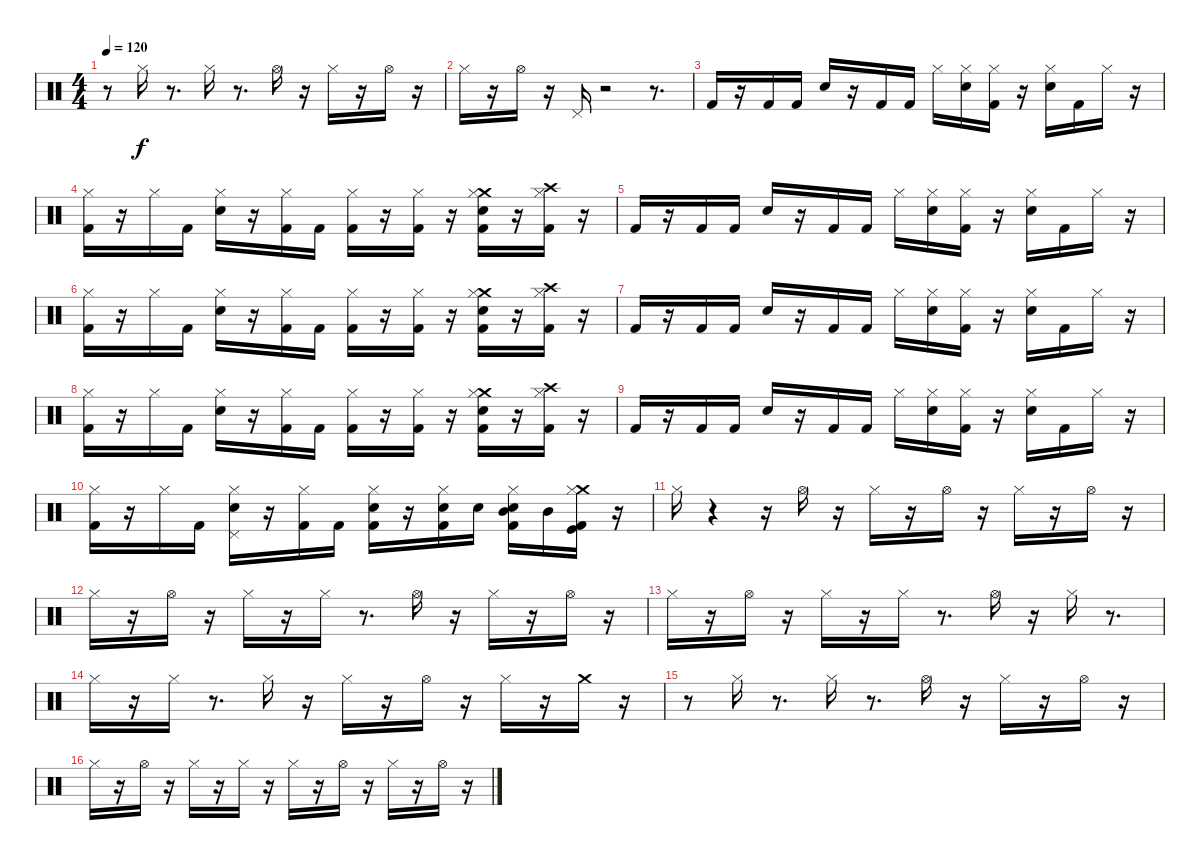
\track "" {instrument percussion}
\staff {score}
\articulation defaults
\ts (4 4)
\tempo 120
\clef neutral
\ks c
r.8{dy f} "Hi-Hat (closed)".16 r.8{d} "Hi-Hat (closed)".16 r.8{d} "Hi-Hat (open)".16 r.16 "Hi-Hat (closed)".16 r.16 "Hi-Hat (open)".16 r.16 |
"Hi-Hat (closed)".16 r.16 "Hi-Hat (open)".16 r.16 "Pedal Hi-Hat (hit)".16 r.2 r.8{d} |
"Kick (hit) 2".16 r.16 "Kick (hit) 2".16 "Kick (hit) 2".16 "Electric Snare (hit)".16 r.16 "Kick (hit) 2".16 "Kick (hit) 2".16 "Hi-Hat (closed)".16 ("Hi-Hat (closed)" "Electric Snare (hit)").16 ("Hi-Hat (closed)" "Kick (hit) 2").16 r.16 ("Hi-Hat (closed)" "Electric Snare (hit)").16 "Kick (hit) 2".16 "Hi-Hat (closed)".16 r.16 |
("Kick (hit) 2" "Hi-Hat (closed)").16 r.16 "Hi-Hat (closed)".16 "Kick (hit) 2".16 ("Electric Snare (hit)" "Hi-Hat (closed)").16 r.16 ("Kick (hit) 2" "Hi-Hat (closed)").16 "Kick (hit) 2".16 ("Kick (hit) 2" "Hi-Hat (closed)").16 r.16 ("Kick (hit) 2" "Hi-Hat (closed)").16 r.16 ("Crash medium (hit)" "Electric Snare (hit)" "Kick (hit) 2" "Hi-Hat (closed)").16 r.16 ("Crash high (hit)" "Kick (hit) 2" "Hi-Hat (closed)").16 r.16 |
"Kick (hit) 2".16 r.16 "Kick (hit) 2".16 "Kick (hit) 2".16 "Electric Snare (hit)".16 r.16 "Kick (hit) 2".16 "Kick (hit) 2".16 "Hi-Hat (closed)".16 ("Hi-Hat (closed)" "Electric Snare (hit)").16 ("Hi-Hat (closed)" "Kick (hit) 2").16 r.16 ("Hi-Hat (closed)" "Electric Snare (hit)").16 "Kick (hit) 2".16 "Hi-Hat (closed)".16 r.16 |
("Kick (hit) 2" "Hi-Hat (closed)").16 r.16 "Hi-Hat (closed)".16 "Kick (hit) 2".16 ("Electric Snare (hit)" "Hi-Hat (closed)").16 r.16 ("Kick (hit) 2" "Hi-Hat (closed)").16 "Kick (hit) 2".16 ("Kick (hit) 2" "Hi-Hat (closed)").16 r.16 ("Kick (hit) 2" "Hi-Hat (closed)").16 r.16 ("Crash medium (hit)" "Electric Snare (hit)" "Kick (hit) 2" "Hi-Hat (closed)").16 r.16 ("Crash high (hit)" "Kick (hit) 2" "Hi-Hat (closed)").16 r.16 |
"Kick (hit) 2".16 r.16 "Kick (hit) 2".16 "Kick (hit) 2".16 "Electric Snare (hit)".16 r.16 "Kick (hit) 2".16 "Kick (hit) 2".16 "Hi-Hat (closed)".16 ("Hi-Hat (closed)" "Electric Snare (hit)").16 ("Hi-Hat (closed)" "Kick (hit) 2").16 r.16 ("Hi-Hat (closed)" "Electric Snare (hit)").16 "Kick (hit) 2".16 "Hi-Hat (closed)".16 r.16 |
("Kick (hit) 2" "Hi-Hat (closed)").16 r.16 "Hi-Hat (closed)".16 "Kick (hit) 2".16 ("Electric Snare (hit)" "Hi-Hat (closed)").16 r.16 ("Kick (hit) 2" "Hi-Hat (closed)").16 "Kick (hit) 2".16 ("Kick (hit) 2" "Hi-Hat (closed)").16 r.16 ("Kick (hit) 2" "Hi-Hat (closed)").16 r.16 ("Crash medium (hit)" "Electric Snare (hit)" "Kick (hit) 2" "Hi-Hat (closed)").16 r.16 ("Crash high (hit)" "Kick (hit) 2" "Hi-Hat (closed)").16 r.16 |
"Kick (hit) 2".16 r.16 "Kick (hit) 2".16 "Kick (hit) 2".16 "Electric Snare (hit)".16 r.16 "Kick (hit) 2".16 "Kick (hit) 2".16 "Hi-Hat (closed)".16 ("Hi-Hat (closed)" "Electric Snare (hit)").16 ("Hi-Hat (closed)" "Kick (hit) 2").16 r.16 ("Hi-Hat (closed)" "Electric Snare (hit)").16 "Kick (hit) 2".16 "Hi-Hat (closed)".16 r.16 |
("Kick (hit) 2" "Hi-Hat (closed)").16 r.16 "Hi-Hat (closed)".16 "Kick (hit) 2".16 ("Pedal Hi-Hat (hit)" "Electric Snare (hit)" "Hi-Hat (closed)").16 r.16 ("Kick (hit) 2" "Hi-Hat (closed)").16 "Kick (hit) 2".16 ("Snare (hit) 2" "Kick (hit) 2" "Hi-Hat (closed)").16 r.16 ("Snare (hit) 2" "Kick (hit) 2" "Hi-Hat (closed)").16 "Snare (hit) 2".16 ("Mid Tom (hit)" "Electric Snare (hit)" "Kick (hit) 2" "Hi-Hat (closed)").16 "Mid Tom (hit)".16 ("Crash medium (hit)" "Kick (hit)" "Kick (hit) 2" "Hi-Hat (closed)").16 r.16 |
"Hi-Hat (closed)".16 r.4 r.16 "Hi-Hat (open)".16 r.16 "Hi-Hat (closed)".16 r.16 "Hi-Hat (open)".16 r.16 "Hi-Hat (closed)".16 r.16 "Hi-Hat (open)".16 r.16 |
"Hi-Hat (closed)".16 r.16 "Hi-Hat (open)".16 r.16 "Hi-Hat (closed)".16 r.16 "Hi-Hat (closed)".16 r.8{d} "Hi-Hat (open)".16 r.16 "Hi-Hat (closed)".16 r.16 "Hi-Hat (open)".16 r.16 |
"Hi-Hat (closed)".16 r.16 "Hi-Hat (open)".16 r.16 "Hi-Hat (closed)".16 r.16 "Hi-Hat (closed)".16 r.8{d} "Hi-Hat (open)".16 r.16 "Hi-Hat (closed)".16 r.8{d} |
"Hi-Hat (closed)".16 r.16 "Hi-Hat (closed)".16 r.8{d} "Hi-Hat (closed)".16 r.16 "Hi-Hat (closed)".16 r.16 "Hi-Hat (open)".16 r.16 "Hi-Hat (closed)".16 r.16 "Crash medium (hit)".16 r.16 |
r.8 "Hi-Hat (closed)".16 r.8{d} "Hi-Hat (closed)".16 r.8{d} "Hi-Hat (open)".16 r.16 "Hi-Hat (closed)".16 r.16 "Hi-Hat (open)".16 r.16 |
"Hi-Hat (closed)".16 r.16 "Hi-Hat (open)".16 r.16 "Hi-Hat (closed)".16 r.16 "Hi-Hat (closed)".16 r.16 "Hi-Hat (closed)".16 r.16 "Hi-Hat (open)".16 r.16 "Hi-Hat (closed)".16 r.16 "Hi-Hat (open)".16 r.16
